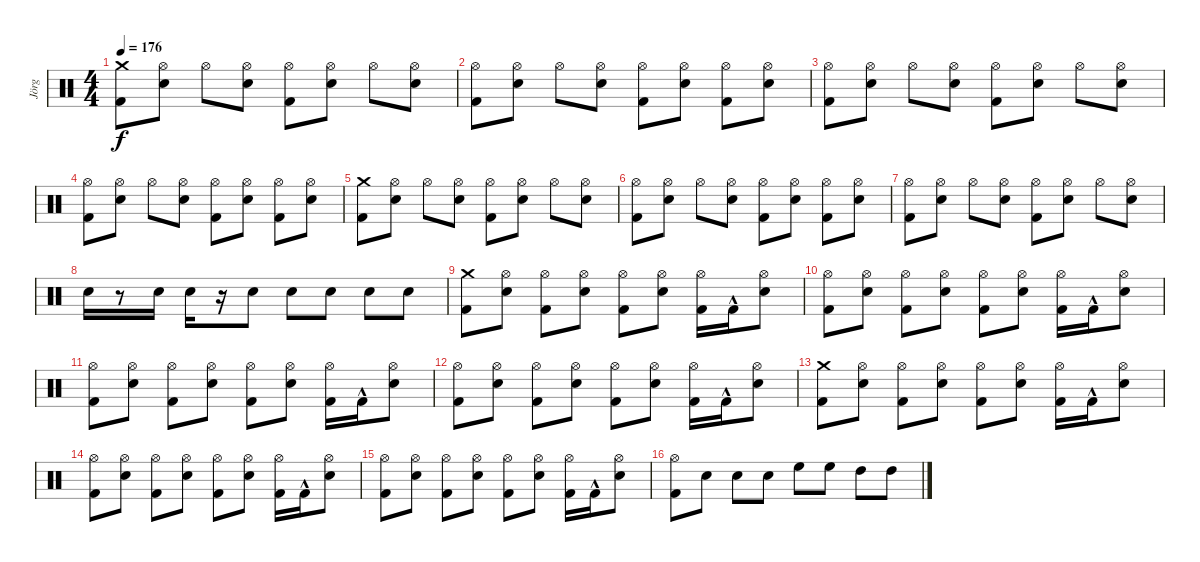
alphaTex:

\track ("Jörg" "Jörg") {instrument percussion}
\staff {score}
\articulation defaults
\ts (4 4)
\tempo 176
\clef neutral
\ks c
("Kick (hit) 2" "Crash medium (hit)").8{dy f} ("Snare (hit) 2" "Hi-Hat (open)").8 "Hi-Hat (open)".8 ("Snare (hit) 2" "Hi-Hat (open)").8 ("Kick (hit) 2" "Hi-Hat (open)").8 ("Snare (hit) 2" "Hi-Hat (open)").8 "Hi-Hat (open)".8 ("Snare (hit) 2" "Hi-Hat (open)").8 |
("Hi-Hat (open)" "Kick (hit) 2").8 ("Snare (hit) 2" "Hi-Hat (open)").8 "Hi-Hat (open)".8 ("Snare (hit) 2" "Hi-Hat (open)").8 ("Kick (hit) 2" "Hi-Hat (open)").8 ("Snare (hit) 2" "Hi-Hat (open)").8 ("Kick (hit) 2" "Hi-Hat (open)").8 ("Snare (hit) 2" "Hi-Hat (open)").8 |
("Hi-Hat (open)" "Kick (hit) 2").8 ("Snare (hit) 2" "Hi-Hat (open)").8 "Hi-Hat (open)".8 ("Snare (hit) 2" "Hi-Hat (open)").8 ("Kick (hit) 2" "Hi-Hat (open)").8 ("Snare (hit) 2" "Hi-Hat (open)").8 "Hi-Hat (open)".8 ("Snare (hit) 2" "Hi-Hat (open)").8 |
("Hi-Hat (open)" "Kick (hit) 2").8 ("Snare (hit) 2" "Hi-Hat (open)").8 "Hi-Hat (open)".8 ("Snare (hit) 2" "Hi-Hat (open)").8 ("Kick (hit) 2" "Hi-Hat (open)").8 ("Snare (hit) 2" "Hi-Hat (open)").8 ("Kick (hit) 2" "Hi-Hat (open)").8 ("Snare (hit) 2" "Hi-Hat (open)").8 |
("Kick (hit) 2" "Crash medium (hit)").8 ("Snare (hit) 2" "Hi-Hat (open)").8 "Hi-Hat (open)".8 ("Snare (hit) 2" "Hi-Hat (open)").8 ("Kick (hit) 2" "Hi-Hat (open)").8 ("Snare (hit) 2" "Hi-Hat (open)").8 "Hi-Hat (open)".8 ("Snare (hit) 2" "Hi-Hat (open)").8 |
("Hi-Hat (open)" "Kick (hit) 2").8 ("Snare (hit) 2" "Hi-Hat (open)").8 "Hi-Hat (open)".8 ("Snare (hit) 2" "Hi-Hat (open)").8 ("Kick (hit) 2" "Hi-Hat (open)").8 ("Snare (hit) 2" "Hi-Hat (open)").8 ("Kick (hit) 2" "Hi-Hat (open)").8 ("Snare (hit) 2" "Hi-Hat (open)").8 |
("Hi-Hat (open)" "Kick (hit) 2").8 ("Snare (hit) 2" "Hi-Hat (open)").8 "Hi-Hat (open)".8 ("Snare (hit) 2" "Hi-Hat (open)").8 ("Kick (hit) 2" "Hi-Hat (open)").8 ("Snare (hit) 2" "Hi-Hat (open)").8 "Hi-Hat (open)".8 ("Snare (hit) 2" "Hi-Hat (open)").8 |
"Snare (hit) 2".16 r.8 "Snare (hit) 2".16 "Snare (hit) 2".16 r.16 "Snare (hit) 2".8 "Snare (hit) 2".8 "Snare (hit) 2".8 "Snare (hit) 2".8 "Snare (hit) 2".8 |
("Kick (hit) 2" "Crash medium (hit)").8 ("Snare (hit) 2" "Hi-Hat (open)").8 ("Kick (hit) 2" "Hi-Hat (open)").8 ("Snare (hit) 2" "Hi-Hat (open)").8 ("Kick (hit) 2" "Hi-Hat (open)").8 ("Snare (hit) 2" "Hi-Hat (open)").8 ("Kick (hit) 2" "Hi-Hat (open)").16 "Kick (hit) 2"{hac}.16 ("Snare (hit) 2" "Hi-Hat (open)").8 |
("Hi-Hat (open)" "Kick (hit) 2").8 ("Snare (hit) 2" "Hi-Hat (open)").8 ("Kick (hit) 2" "Hi-Hat (open)").8 ("Snare (hit) 2" "Hi-Hat (open)").8 ("Kick (hit) 2" "Hi-Hat (open)").8 ("Snare (hit) 2" "Hi-Hat (open)").8 ("Kick (hit) 2" "Hi-Hat (open)").16 "Kick (hit) 2"{hac}.16 ("Snare (hit) 2" "Hi-Hat (open)").8 |
("Hi-Hat (open)" "Kick (hit) 2").8 ("Snare (hit) 2" "Hi-Hat (open)").8 ("Kick (hit) 2" "Hi-Hat (open)").8 ("Snare (hit) 2" "Hi-Hat (open)").8 ("Kick (hit) 2" "Hi-Hat (open)").8 ("Snare (hit) 2" "Hi-Hat (open)").8 ("Kick (hit) 2" "Hi-Hat (open)").16 "Kick (hit) 2"{hac}.16 ("Snare (hit) 2" "Hi-Hat (open)").8 |
("Hi-Hat (open)" "Kick (hit) 2").8 ("Snare (hit) 2" "Hi-Hat (open)").8 ("Kick (hit) 2" "Hi-Hat (open)").8 ("Snare (hit) 2" "Hi-Hat (open)").8 ("Kick (hit) 2" "Hi-Hat (open)").8 ("Snare (hit) 2" "Hi-Hat (open)").8 ("Kick (hit) 2" "Hi-Hat (open)").16 "Kick (hit) 2"{hac}.16 ("Snare (hit) 2" "Hi-Hat (open)").8 |
("Kick (hit) 2" "Crash medium (hit)").8 ("Snare (hit) 2" "Hi-Hat (open)").8 ("Kick (hit) 2" "Hi-Hat (open)").8 ("Snare (hit) 2" "Hi-Hat (open)").8 ("Kick (hit) 2" "Hi-Hat (open)").8 ("Snare (hit) 2" "Hi-Hat (open)").8 ("Kick (hit) 2" "Hi-Hat (open)").16 "Kick (hit) 2"{hac}.16 ("Snare (hit) 2" "Hi-Hat (open)").8 |
("Hi-Hat (open)" "Kick (hit) 2").8 ("Snare (hit) 2" "Hi-Hat (open)").8 ("Kick (hit) 2" "Hi-Hat (open)").8 ("Snare (hit) 2" "Hi-Hat (open)").8 ("Kick (hit) 2" "Hi-Hat (open)").8 ("Snare (hit) 2" "Hi-Hat (open)").8 ("Kick (hit) 2" "Hi-Hat (open)").16 "Kick (hit) 2"{hac}.16 ("Snare (hit) 2" "Hi-Hat (open)").8 |
("Hi-Hat (open)" "Kick (hit) 2").8 ("Snare (hit) 2" "Hi-Hat (open)").8 ("Kick (hit) 2" "Hi-Hat (open)").8 ("Snare (hit) 2" "Hi-Hat (open)").8 ("Kick (hit) 2" "Hi-Hat (open)").8 ("Snare (hit) 2" "Hi-Hat (open)").8 ("Kick (hit) 2" "Hi-Hat (open)").16 "Kick (hit) 2"{hac}.16 ("Snare (hit) 2" "Hi-Hat (open)").8 |
("Kick (hit) 2" "Hi-Hat (open)").8 "Snare (hit) 2".8 "Snare (hit) 2".8 "Snare (hit) 2".8 "High Floor Tom (hit)".8 "High Floor Tom (hit)".8 "High Tom (hit)".8 "High Tom (hit)".8
